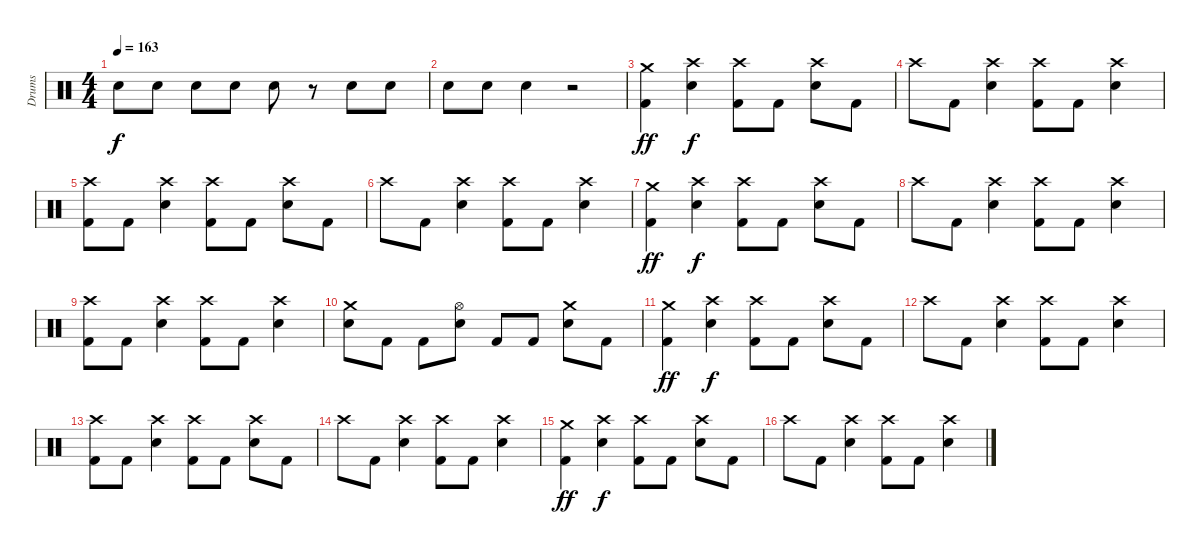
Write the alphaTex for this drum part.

\track ("Drums" "Drums") {instrument percussion}
\staff {score}
\articulation defaults
\ts (4 4)
\tempo 163
\clef neutral
\ks c "Snare (hit) 2".8{dy f} "Snare (hit) 2".8 "Snare (hit) 2".8 "Snare (hit) 2".8 "Snare (hit) 2".8
r.8 "Snare (hit) 2".8 "Snare (hit) 2".8 |
"Snare (hit) 2".8 "Snare (hit) 2".8 "Snare (hit) 2".4 r.2 |
("Crash medium (hit)" "Kick (hit) 2").4{dy ff} ("Crash high (hit)" "Snare (hit) 2").4{dy f} ("Crash high (hit)" "Kick (hit) 2").8 "Kick (hit) 2".8 ("Crash high (hit)" "Snare (hit) 2").8 "Kick (hit) 2".8 |
"Crash high (hit)".8 "Kick (hit) 2".8 ("Crash high (hit)" "Snare (hit) 2").4 ("Crash high (hit)" "Kick (hit) 2").8 "Kick (hit) 2".8 ("Crash high (hit)" "Snare (hit) 2").4 |
("Crash high (hit)" "Kick (hit) 2").8 "Kick (hit) 2".8 ("Crash high (hit)" "Snare (hit) 2").4 ("Crash high (hit)" "Kick (hit) 2").8 "Kick (hit) 2".8 ("Crash high (hit)" "Snare (hit) 2").8 "Kick (hit) 2".8 |
"Crash high (hit)".8 "Kick (hit) 2".8 ("Crash high (hit)" "Snare (hit) 2").4 ("Crash high (hit)" "Kick (hit) 2").8 "Kick (hit) 2".8 ("Crash high (hit)" "Snare (hit) 2").4 |
("Crash medium (hit)" "Kick (hit) 2").4{dy ff} ("Crash high (hit)" "Snare (hit) 2").4{dy f} ("Crash high (hit)" "Kick (hit) 2").8 "Kick (hit) 2".8 ("Crash high (hit)" "Snare (hit) 2").8 "Kick (hit) 2".8 |
"Crash high (hit)".8 "Kick (hit) 2".8 ("Crash high (hit)" "Snare (hit) 2").4 ("Crash high (hit)" "Kick (hit) 2").8 "Kick (hit) 2".8 ("Crash high (hit)" "Snare (hit) 2").4 |
("Crash high (hit)" "Kick (hit) 2").8 "Kick (hit) 2".8 ("Crash high (hit)" "Snare (hit) 2").4 ("Crash high (hit)" "Kick (hit) 2").8 "Kick (hit) 2".8 ("Crash high (hit)" "Snare (hit) 2").4 |
("Crash medium (hit)" "Snare (hit) 2").8 "Kick (hit) 2".8 "Kick (hit) 2".8 ("Hi-Hat (open)" "Snare (hit) 2").8 "Kick (hit) 2".8 "Kick (hit) 2".8 ("Crash medium (hit)" "Snare (hit) 2").8 "Kick (hit) 2".8 |
("Crash medium (hit)" "Kick (hit) 2").4{dy ff} ("Crash high (hit)" "Snare (hit) 2").4{dy f} ("Crash high (hit)" "Kick (hit) 2").8 "Kick (hit) 2".8 ("Crash high (hit)" "Snare (hit) 2").8 "Kick (hit) 2".8 |
"Crash high (hit)".8 "Kick (hit) 2".8 ("Crash high (hit)" "Snare (hit) 2").4 ("Crash high (hit)" "Kick (hit) 2").8 "Kick (hit) 2".8 ("Crash high (hit)" "Snare (hit) 2").4 |
("Crash high (hit)" "Kick (hit) 2").8 "Kick (hit) 2".8 ("Crash high (hit)" "Snare (hit) 2").4 ("Crash high (hit)" "Kick (hit) 2").8 "Kick (hit) 2".8 ("Crash high (hit)" "Snare (hit) 2").8 "Kick (hit) 2".8 |
"Crash high (hit)".8 "Kick (hit) 2".8 ("Crash high (hit)" "Snare (hit) 2").4 ("Crash high (hit)" "Kick (hit) 2").8 "Kick (hit) 2".8 ("Crash high (hit)" "Snare (hit) 2").4 |
("Crash medium (hit)" "Kick (hit) 2").4{dy ff} ("Crash high (hit)" "Snare (hit) 2").4{dy f} ("Crash high (hit)" "Kick (hit) 2").8 "Kick (hit) 2".8 ("Crash high (hit)" "Snare (hit) 2").8 "Kick (hit) 2".8 |
"Crash high (hit)".8 "Kick (hit) 2".8 ("Crash high (hit)" "Snare (hit) 2").4 ("Crash high (hit)" "Kick (hit) 2").8 "Kick (hit) 2".8 ("Crash high (hit)" "Snare (hit) 2").4
